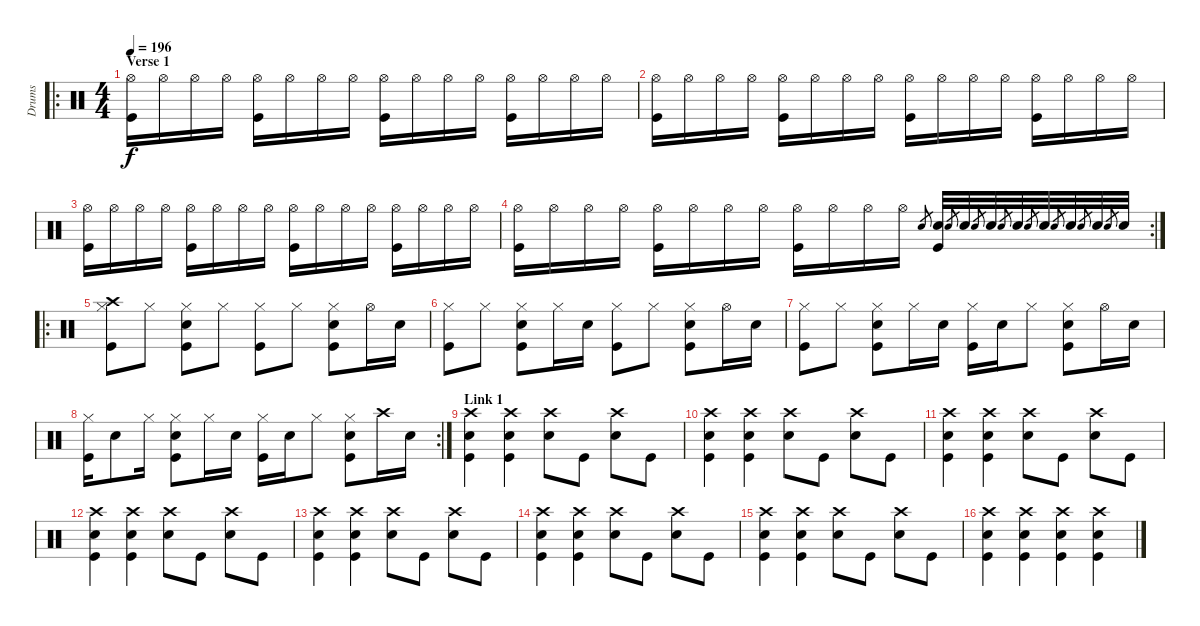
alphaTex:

\track ("Drums" "Drums") {instrument percussion}
\staff {score}
\articulation defaults
\ro
\ts (4 4)
\section ("" "Verse 1")
\tempo 196
\clef neutral
\ks c
("Kick (hit)" "Hi-Hat (open)").16{dy f} "Hi-Hat (open)".16 "Hi-Hat (open)".16 "Hi-Hat (open)".16 ("Kick (hit)" "Hi-Hat (open)").16 "Hi-Hat (open)".16 "Hi-Hat (open)".16 "Hi-Hat (open)".16 ("Kick (hit)" "Hi-Hat (open)").16 "Hi-Hat (open)".16 "Hi-Hat (open)".16 "Hi-Hat (open)".16 ("Kick (hit)" "Hi-Hat (open)").16 "Hi-Hat (open)".16 "Hi-Hat (open)".16 "Hi-Hat (open)".16 |
("Kick (hit)" "Hi-Hat (open)").16 "Hi-Hat (open)".16 "Hi-Hat (open)".16 "Hi-Hat (open)".16 ("Kick (hit)" "Hi-Hat (open)").16 "Hi-Hat (open)".16 "Hi-Hat (open)".16 "Hi-Hat (open)".16 ("Kick (hit)" "Hi-Hat (open)").16 "Hi-Hat (open)".16 "Hi-Hat (open)".16 "Hi-Hat (open)".16 ("Kick (hit)" "Hi-Hat (open)").16 "Hi-Hat (open)".16 "Hi-Hat (open)".16 "Hi-Hat (open)".16 |
("Kick (hit)" "Hi-Hat (open)").16 "Hi-Hat (open)".16 "Hi-Hat (open)".16 "Hi-Hat (open)".16 ("Kick (hit)" "Hi-Hat (open)").16 "Hi-Hat (open)".16 "Hi-Hat (open)".16 "Hi-Hat (open)".16 ("Kick (hit)" "Hi-Hat (open)").16 "Hi-Hat (open)".16 "Hi-Hat (open)".16 "Hi-Hat (open)".16 ("Kick (hit)" "Hi-Hat (open)").16 "Hi-Hat (open)".16 "Hi-Hat (open)".16 "Hi-Hat (open)".16 |
\rc 2
("Kick (hit)" "Hi-Hat (open)").16 "Hi-Hat (open)".16 "Hi-Hat (open)".16 "Hi-Hat (open)".16 ("Kick (hit)" "Hi-Hat (open)").16 "Hi-Hat (open)".16 "Hi-Hat (open)".16 "Hi-Hat (open)".16 ("Kick (hit)" "Hi-Hat (open)").16 "Hi-Hat (open)".16 "Hi-Hat (open)".16 "Hi-Hat (open)".16 "Electric Snare (hit)".8{gr} ("Kick (hit)" "Electric Snare (hit)").32 "Electric Snare (hit)".8{gr} "Electric Snare (hit)".32 "Electric Snare (hit)".8{gr} "Electric Snare (hit)".32 "Electric Snare (hit)".8{gr} "Electric Snare (hit)".32 "Electric Snare (hit)".8{gr} "Electric Snare (hit)".32 "Electric Snare (hit)".8{gr} "Electric Snare (hit)".32 "Electric Snare (hit)".8{gr} "Electric Snare (hit)".32 "Electric Snare (hit)".8{gr} "Electric Snare (hit)".32 |
\ro
("Kick (hit)" "Hi-Hat (closed)" "Crash high (hit)").8 "Hi-Hat (closed)".8 ("Kick (hit)" "Hi-Hat (closed)" "Electric Snare (hit)").8 "Hi-Hat (closed)".8 ("Kick (hit)" "Hi-Hat (closed)").8 "Hi-Hat (closed)".8 ("Kick (hit)" "Hi-Hat (closed)" "Electric Snare (hit)").8 "Hi-Hat (open)".16 "Electric Snare (hit)".16 |
("Kick (hit)" "Hi-Hat (closed)").8 "Hi-Hat (closed)".8 ("Kick (hit)" "Hi-Hat (closed)" "Electric Snare (hit)").8 "Hi-Hat (closed)".16 "Electric Snare (hit)".16 ("Kick (hit)" "Hi-Hat (closed)").8 "Hi-Hat (closed)".8 ("Kick (hit)" "Hi-Hat (closed)" "Electric Snare (hit)").8 "Hi-Hat (open)".16 "Electric Snare (hit)".16 |
("Kick (hit)" "Hi-Hat (closed)").8 "Hi-Hat (closed)".8 ("Kick (hit)" "Hi-Hat (closed)" "Electric Snare (hit)").8 "Hi-Hat (closed)".16 "Electric Snare (hit)".16 ("Kick (hit)" "Hi-Hat (closed)").16 "Electric Snare (hit)".16 "Hi-Hat (closed)".8 ("Kick (hit)" "Hi-Hat (closed)" "Electric Snare (hit)").8 "Hi-Hat (open)".16 "Electric Snare (hit)".16 |
\rc 2
("Kick (hit)" "Hi-Hat (closed)").16 "Electric Snare (hit)".8 "Hi-Hat (closed)".16 ("Kick (hit)" "Hi-Hat (closed)" "Electric Snare (hit)").8 "Hi-Hat (closed)".16 "Electric Snare (hit)".16 ("Kick (hit)" "Hi-Hat (closed)").16 "Electric Snare (hit)".16 "Hi-Hat (closed)".8 ("Kick (hit)" "Hi-Hat (closed)" "Electric Snare (hit)").8 "Crash high (hit)".16 "Electric Snare (hit)".16 |
\section ("" "Link 1")
("Crash high (hit)" "Kick (hit)" "Electric Snare (hit)").4 ("Crash high (hit)" "Kick (hit)" "Electric Snare (hit)").4 ("Crash high (hit)" "Electric Snare (hit)").8 "Kick (hit)".8 ("Crash high (hit)" "Electric Snare (hit)").8 "Kick (hit)".8 |
("Crash high (hit)" "Kick (hit)" "Electric Snare (hit)").4 ("Crash high (hit)" "Kick (hit)" "Electric Snare (hit)").4 ("Crash high (hit)" "Electric Snare (hit)").8 "Kick (hit)".8 ("Crash high (hit)" "Electric Snare (hit)").8 "Kick (hit)".8 |
("Crash high (hit)" "Kick (hit)" "Electric Snare (hit)").4 ("Crash high (hit)" "Kick (hit)" "Electric Snare (hit)").4 ("Crash high (hit)" "Electric Snare (hit)").8 "Kick (hit)".8 ("Crash high (hit)" "Electric Snare (hit)").8 "Kick (hit)".8 |
("Crash high (hit)" "Kick (hit)" "Electric Snare (hit)").4 ("Crash high (hit)" "Kick (hit)" "Electric Snare (hit)").4 ("Crash high (hit)" "Electric Snare (hit)").8 "Kick (hit)".8 ("Crash high (hit)" "Electric Snare (hit)").8 "Kick (hit)".8 |
("Crash high (hit)" "Kick (hit)" "Electric Snare (hit)").4 ("Crash high (hit)" "Kick (hit)" "Electric Snare (hit)").4 ("Crash high (hit)" "Electric Snare (hit)").8 "Kick (hit)".8 ("Crash high (hit)" "Electric Snare (hit)").8 "Kick (hit)".8 |
("Crash high (hit)" "Kick (hit)" "Electric Snare (hit)").4 ("Crash high (hit)" "Kick (hit)" "Electric Snare (hit)").4 ("Crash high (hit)" "Electric Snare (hit)").8 "Kick (hit)".8 ("Crash high (hit)" "Electric Snare (hit)").8 "Kick (hit)".8 |
("Crash high (hit)" "Kick (hit)" "Electric Snare (hit)").4 ("Crash high (hit)" "Kick (hit)" "Electric Snare (hit)").4 ("Crash high (hit)" "Electric Snare (hit)").8 "Kick (hit)".8 ("Crash high (hit)" "Electric Snare (hit)").8 "Kick (hit)".8 |
("Crash high (hit)" "Electric Snare (hit)" "Kick (hit)").4 ("Crash high (hit)" "Electric Snare (hit)" "Kick (hit)").4 ("Crash high (hit)" "Electric Snare (hit)" "Kick (hit)").4 ("Crash high (hit)" "Electric Snare (hit)" "Kick (hit)").4
